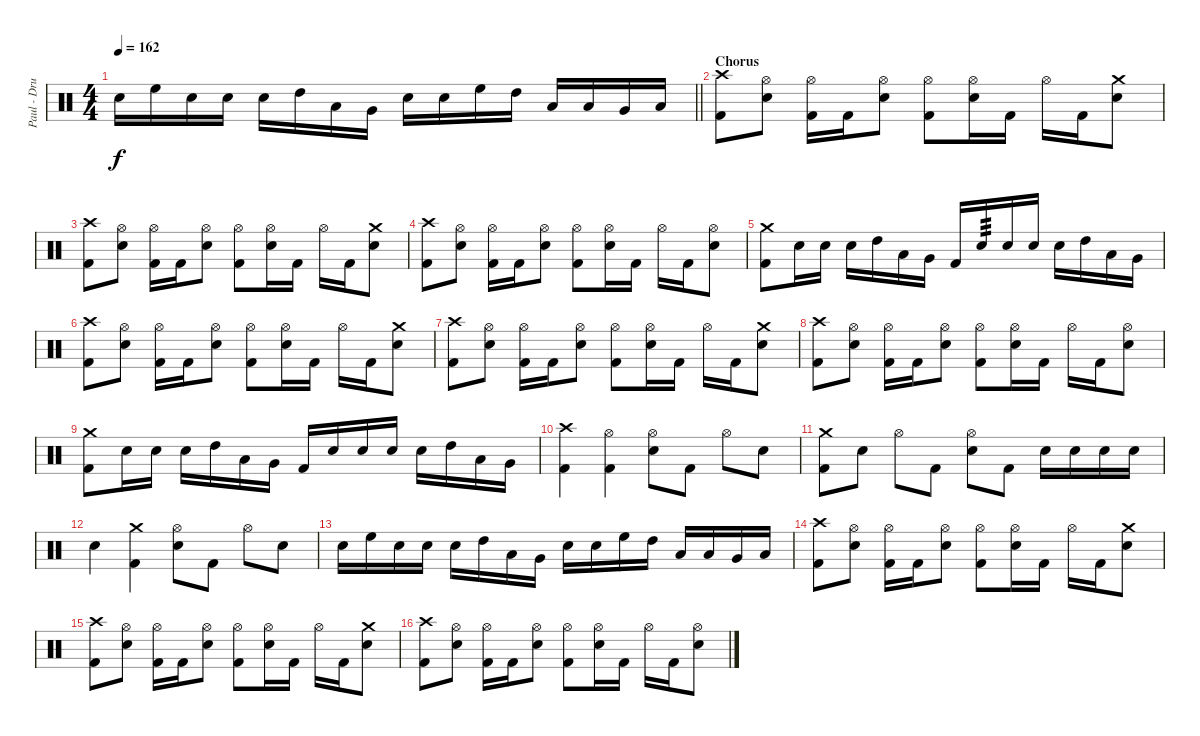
\track ("Paul - Drums" "Paul - Dru") {instrument percussion}
\staff {score}
\articulation defaults
\ts (4 4)
\tempo 162
\clef neutral
\barLineRight lightlight
\ks c "Electric Snare (hit)".16{dy f} "High Floor Tom (hit)".16 "Electric Snare (hit)".16 "Electric Snare (hit)".16 "Electric Snare (hit)".16 "High Tom (hit)".16 "Low Tom (hit)".16 "Very Low Tom (hit)".16 "Electric Snare (hit)".16 "Electric Snare (hit)".16 "High Floor Tom (hit)".16 "High Tom (hit)".16 "Low Tom (hit)".16 "Low Tom (hit)".16 "Very Low Tom (hit)".16 "Low Floor Tom (hit)".16
|
\section ("" "Chorus")
("Crash high (hit)" "Kick (hit) 2").8 ("Hi-Hat (open)" "Electric Snare (hit)").8 ("Hi-Hat (open)" "Kick (hit) 2").16 "Kick (hit) 2".16 ("Hi-Hat (open)" "Electric Snare (hit)").8 ("Hi-Hat (open)" "Kick (hit) 2").8 ("Hi-Hat (open)" "Electric Snare (hit)").16 "Kick (hit) 2".16 "Hi-Hat (open)".16 "Kick (hit) 2".16 ("Crash medium (hit)" "Electric Snare (hit)").8 |
("Crash high (hit)" "Kick (hit) 2").8 ("Hi-Hat (open)" "Electric Snare (hit)").8 ("Hi-Hat (open)" "Kick (hit) 2").16 "Kick (hit) 2".16 ("Hi-Hat (open)" "Electric Snare (hit)").8 ("Hi-Hat (open)" "Kick (hit) 2").8 ("Hi-Hat (open)" "Electric Snare (hit)").16 "Kick (hit) 2".16 "Hi-Hat (open)".16 "Kick (hit) 2".16 ("Crash medium (hit)" "Electric Snare (hit)").8 |
("Crash high (hit)" "Kick (hit) 2").8 ("Hi-Hat (open)" "Electric Snare (hit)").8 ("Hi-Hat (open)" "Kick (hit) 2").16 "Kick (hit) 2".16 ("Hi-Hat (open)" "Electric Snare (hit)").8 ("Hi-Hat (open)" "Kick (hit) 2").8 ("Hi-Hat (open)" "Electric Snare (hit)").16 "Kick (hit) 2".16 "Hi-Hat (open)".16 "Kick (hit) 2".16 ("Hi-Hat (open)" "Electric Snare (hit)").8 |
("Crash medium (hit)" "Kick (hit) 2").8 "Electric Snare (hit)".16 "Electric Snare (hit)".16 "Electric Snare (hit)".16 "High Tom (hit)".16 "Low Tom (hit)".16 "Very Low Tom (hit)".16 "Kick (hit) 2".16 "Electric Snare (hit)".16{tp 3} "Electric Snare (hit)".16 "Electric Snare (hit)".16 "Electric Snare (hit)".16 "High Tom (hit)".16 "Low Tom (hit)".16 "Very Low Tom (hit)".16 |
("Crash high (hit)" "Kick (hit) 2").8 ("Hi-Hat (open)" "Electric Snare (hit)").8 ("Hi-Hat (open)" "Kick (hit) 2").16 "Kick (hit) 2".16 ("Hi-Hat (open)" "Electric Snare (hit)").8 ("Hi-Hat (open)" "Kick (hit) 2").8 ("Hi-Hat (open)" "Electric Snare (hit)").16 "Kick (hit) 2".16 "Hi-Hat (open)".16 "Kick (hit) 2".16 ("Crash medium (hit)" "Electric Snare (hit)").8 |
("Crash high (hit)" "Kick (hit) 2").8 ("Hi-Hat (open)" "Electric Snare (hit)").8 ("Hi-Hat (open)" "Kick (hit) 2").16 "Kick (hit) 2".16 ("Hi-Hat (open)" "Electric Snare (hit)").8 ("Hi-Hat (open)" "Kick (hit) 2").8 ("Hi-Hat (open)" "Electric Snare (hit)").16 "Kick (hit) 2".16 "Hi-Hat (open)".16 "Kick (hit) 2".16 ("Crash medium (hit)" "Electric Snare (hit)").8 |
("Crash high (hit)" "Kick (hit) 2").8 ("Hi-Hat (open)" "Electric Snare (hit)").8 ("Hi-Hat (open)" "Kick (hit) 2").16 "Kick (hit) 2".16 ("Hi-Hat (open)" "Electric Snare (hit)").8 ("Hi-Hat (open)" "Kick (hit) 2").8 ("Hi-Hat (open)" "Electric Snare (hit)").16 "Kick (hit) 2".16 "Hi-Hat (open)".16 "Kick (hit) 2".16 ("Hi-Hat (open)" "Electric Snare (hit)").8 |
("Crash medium (hit)" "Kick (hit) 2").8 "Electric Snare (hit)".16 "Electric Snare (hit)".16 "Electric Snare (hit)".16 "High Tom (hit)".16 "Low Tom (hit)".16 "Very Low Tom (hit)".16 "Kick (hit) 2".16 "Electric Snare (hit)".16 "Electric Snare (hit)".16 "Electric Snare (hit)".16 "Electric Snare (hit)".16 "High Tom (hit)".16 "Low Tom (hit)".16 "Very Low Tom (hit)".16 |
("Crash high (hit)" "Kick (hit) 2").4 ("Hi-Hat (open)" "Kick (hit) 2").4 ("Hi-Hat (open)" "Electric Snare (hit)").8 "Kick (hit) 2".8 "Hi-Hat (open)".8 "Electric Snare (hit)".8 |
("Crash medium (hit)" "Kick (hit) 2").8 "Electric Snare (hit)".8 "Hi-Hat (open)".8 "Kick (hit) 2".8 ("Hi-Hat (open)" "Electric Snare (hit)").8 "Kick (hit) 2".8 "Electric Snare (hit)".16 "Electric Snare (hit)".16 "Electric Snare (hit)".16 "Electric Snare (hit)".16 |
"Electric Snare (hit)".4 ("Crash medium (hit)" "Kick (hit) 2").4 ("Hi-Hat (open)" "Electric Snare (hit)").8 "Kick (hit) 2".8 "Hi-Hat (open)".8 "Electric Snare (hit)".8 |
"Electric Snare (hit)".16 "High Floor Tom (hit)".16 "Electric Snare (hit)".16 "Electric Snare (hit)".16 "Electric Snare (hit)".16 "High Tom (hit)".16 "Low Tom (hit)".16 "Very Low Tom (hit)".16 "Electric Snare (hit)".16 "Electric Snare (hit)".16 "High Floor Tom (hit)".16 "High Tom (hit)".16 "Low Tom (hit)".16 "Low Tom (hit)".16 "Very Low Tom (hit)".16 "Low Floor Tom (hit)".16 |
("Crash high (hit)" "Kick (hit) 2").8 ("Hi-Hat (open)" "Electric Snare (hit)").8 ("Hi-Hat (open)" "Kick (hit) 2").16 "Kick (hit) 2".16 ("Hi-Hat (open)" "Electric Snare (hit)").8 ("Hi-Hat (open)" "Kick (hit) 2").8 ("Hi-Hat (open)" "Electric Snare (hit)").16 "Kick (hit) 2".16 "Hi-Hat (open)".16 "Kick (hit) 2".16 ("Crash medium (hit)" "Electric Snare (hit)").8 |
("Crash high (hit)" "Kick (hit) 2").8 ("Hi-Hat (open)" "Electric Snare (hit)").8 ("Hi-Hat (open)" "Kick (hit) 2").16 "Kick (hit) 2".16 ("Hi-Hat (open)" "Electric Snare (hit)").8 ("Hi-Hat (open)" "Kick (hit) 2").8 ("Hi-Hat (open)" "Electric Snare (hit)").16 "Kick (hit) 2".16 "Hi-Hat (open)".16 "Kick (hit) 2".16 ("Crash medium (hit)" "Electric Snare (hit)").8 |
("Crash high (hit)" "Kick (hit) 2").8 ("Hi-Hat (open)" "Electric Snare (hit)").8 ("Hi-Hat (open)" "Kick (hit) 2").16 "Kick (hit) 2".16 ("Hi-Hat (open)" "Electric Snare (hit)").8 ("Hi-Hat (open)" "Kick (hit) 2").8 ("Hi-Hat (open)" "Electric Snare (hit)").16 "Kick (hit) 2".16 "Hi-Hat (open)".16 "Kick (hit) 2".16 ("Hi-Hat (open)" "Electric Snare (hit)").8
